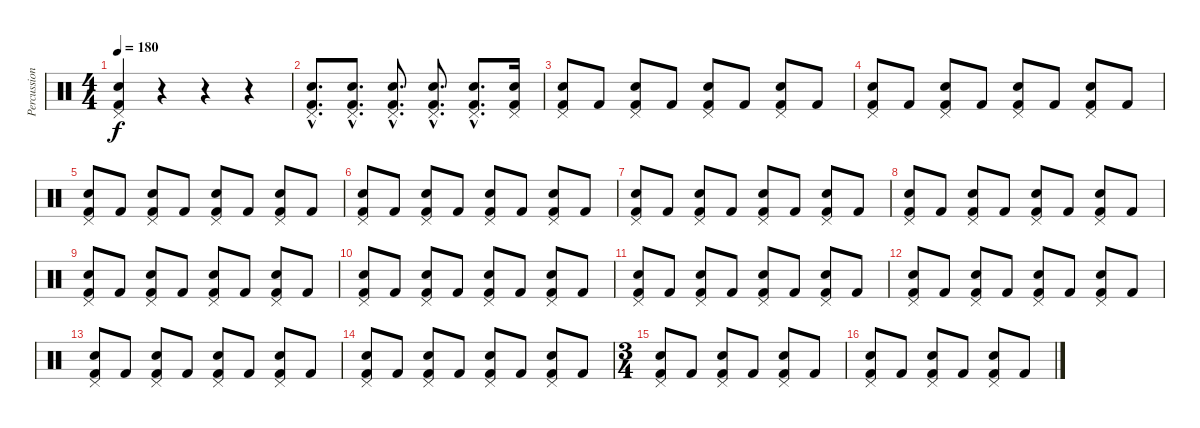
\track ("Percussion" "Percussion") {instrument percussion}
\staff {score}
\articulation defaults
\ts (4 4)
\tempo 180
\clef neutral
\ks c
("Snare (hit) 2" "Pedal Hi-Hat (hit)" "Kick (hit) 2").4{dy f} r.4 r.4 r.4 |
("Snare (hit) 2"{hac} "Pedal Hi-Hat (hit)"{hac} "Kick (hit) 2"{hac}).8{d} ("Snare (hit) 2"{hac} "Pedal Hi-Hat (hit)"{hac} "Kick (hit) 2"{hac}).8{d} ("Snare (hit) 2"{hac} "Pedal Hi-Hat (hit)"{hac} "Kick (hit) 2"{hac}).8{d} ("Snare (hit) 2"{hac} "Pedal Hi-Hat (hit)"{hac} "Kick (hit) 2"{hac}).8{d} ("Snare (hit) 2"{hac} "Pedal Hi-Hat (hit)"{hac} "Kick (hit) 2"{hac}).8{d} ("Snare (hit) 2" "Pedal Hi-Hat (hit)" "Kick (hit) 2").16 |
("Snare (hit) 2" "Pedal Hi-Hat (hit)" "Kick (hit) 2").8 "Kick (hit) 2".8 ("Snare (hit) 2" "Pedal Hi-Hat (hit)" "Kick (hit) 2").8 "Kick (hit) 2".8 ("Snare (hit) 2" "Pedal Hi-Hat (hit)" "Kick (hit) 2").8 "Kick (hit) 2".8 ("Snare (hit) 2" "Pedal Hi-Hat (hit)" "Kick (hit) 2").8 "Kick (hit) 2".8 |
("Snare (hit) 2" "Pedal Hi-Hat (hit)" "Kick (hit) 2").8 "Kick (hit) 2".8 ("Snare (hit) 2" "Pedal Hi-Hat (hit)" "Kick (hit) 2").8 "Kick (hit) 2".8 ("Snare (hit) 2" "Pedal Hi-Hat (hit)" "Kick (hit) 2").8 "Kick (hit) 2".8 ("Snare (hit) 2" "Pedal Hi-Hat (hit)" "Kick (hit) 2").8 "Kick (hit) 2".8 |
("Snare (hit) 2" "Pedal Hi-Hat (hit)" "Kick (hit) 2").8 "Kick (hit) 2".8 ("Snare (hit) 2" "Pedal Hi-Hat (hit)" "Kick (hit) 2").8 "Kick (hit) 2".8 ("Snare (hit) 2" "Pedal Hi-Hat (hit)" "Kick (hit) 2").8 "Kick (hit) 2".8 ("Snare (hit) 2" "Pedal Hi-Hat (hit)" "Kick (hit) 2").8 "Kick (hit) 2".8 |
("Snare (hit) 2" "Pedal Hi-Hat (hit)" "Kick (hit) 2").8 "Kick (hit) 2".8 ("Snare (hit) 2" "Pedal Hi-Hat (hit)" "Kick (hit) 2").8 "Kick (hit) 2".8 ("Snare (hit) 2" "Pedal Hi-Hat (hit)" "Kick (hit) 2").8 "Kick (hit) 2".8 ("Snare (hit) 2" "Pedal Hi-Hat (hit)" "Kick (hit) 2").8 "Kick (hit) 2".8 |
("Snare (hit) 2" "Pedal Hi-Hat (hit)" "Kick (hit) 2").8 "Kick (hit) 2".8 ("Snare (hit) 2" "Pedal Hi-Hat (hit)" "Kick (hit) 2").8 "Kick (hit) 2".8 ("Snare (hit) 2" "Pedal Hi-Hat (hit)" "Kick (hit) 2").8 "Kick (hit) 2".8 ("Snare (hit) 2" "Pedal Hi-Hat (hit)" "Kick (hit) 2").8 "Kick (hit) 2".8 |
("Snare (hit) 2" "Pedal Hi-Hat (hit)" "Kick (hit) 2").8 "Kick (hit) 2".8 ("Snare (hit) 2" "Pedal Hi-Hat (hit)" "Kick (hit) 2").8 "Kick (hit) 2".8 ("Snare (hit) 2" "Pedal Hi-Hat (hit)" "Kick (hit) 2").8 "Kick (hit) 2".8 ("Snare (hit) 2" "Pedal Hi-Hat (hit)" "Kick (hit) 2").8 "Kick (hit) 2".8 |
("Snare (hit) 2" "Pedal Hi-Hat (hit)" "Kick (hit) 2").8 "Kick (hit) 2".8 ("Snare (hit) 2" "Pedal Hi-Hat (hit)" "Kick (hit) 2").8 "Kick (hit) 2".8 ("Snare (hit) 2" "Pedal Hi-Hat (hit)" "Kick (hit) 2").8 "Kick (hit) 2".8 ("Snare (hit) 2" "Pedal Hi-Hat (hit)" "Kick (hit) 2").8 "Kick (hit) 2".8 |
("Snare (hit) 2" "Pedal Hi-Hat (hit)" "Kick (hit) 2").8 "Kick (hit) 2".8 ("Snare (hit) 2" "Pedal Hi-Hat (hit)" "Kick (hit) 2").8 "Kick (hit) 2".8 ("Snare (hit) 2" "Pedal Hi-Hat (hit)" "Kick (hit) 2").8 "Kick (hit) 2".8 ("Snare (hit) 2" "Pedal Hi-Hat (hit)" "Kick (hit) 2").8 "Kick (hit) 2".8 |
("Snare (hit) 2" "Pedal Hi-Hat (hit)" "Kick (hit) 2").8 "Kick (hit) 2".8 ("Snare (hit) 2" "Pedal Hi-Hat (hit)" "Kick (hit) 2").8 "Kick (hit) 2".8 ("Snare (hit) 2" "Pedal Hi-Hat (hit)" "Kick (hit) 2").8 "Kick (hit) 2".8 ("Snare (hit) 2" "Pedal Hi-Hat (hit)" "Kick (hit) 2").8 "Kick (hit) 2".8 |
("Snare (hit) 2" "Pedal Hi-Hat (hit)" "Kick (hit) 2").8 "Kick (hit) 2".8 ("Snare (hit) 2" "Pedal Hi-Hat (hit)" "Kick (hit) 2").8 "Kick (hit) 2".8 ("Snare (hit) 2" "Pedal Hi-Hat (hit)" "Kick (hit) 2").8 "Kick (hit) 2".8 ("Snare (hit) 2" "Pedal Hi-Hat (hit)" "Kick (hit) 2").8 "Kick (hit) 2".8 |
("Snare (hit) 2" "Pedal Hi-Hat (hit)" "Kick (hit) 2").8 "Kick (hit) 2".8 ("Snare (hit) 2" "Pedal Hi-Hat (hit)" "Kick (hit) 2").8 "Kick (hit) 2".8 ("Snare (hit) 2" "Pedal Hi-Hat (hit)" "Kick (hit) 2").8 "Kick (hit) 2".8 ("Snare (hit) 2" "Pedal Hi-Hat (hit)" "Kick (hit) 2").8 "Kick (hit) 2".8 |
("Snare (hit) 2" "Pedal Hi-Hat (hit)" "Kick (hit) 2").8 "Kick (hit) 2".8 ("Snare (hit) 2" "Pedal Hi-Hat (hit)" "Kick (hit) 2").8 "Kick (hit) 2".8 ("Snare (hit) 2" "Pedal Hi-Hat (hit)" "Kick (hit) 2").8 "Kick (hit) 2".8 ("Snare (hit) 2" "Pedal Hi-Hat (hit)" "Kick (hit) 2").8 "Kick (hit) 2".8 |
\ts (3 4)
("Snare (hit) 2" "Pedal Hi-Hat (hit)" "Kick (hit) 2").8 "Kick (hit) 2".8 ("Snare (hit) 2" "Pedal Hi-Hat (hit)" "Kick (hit) 2").8 "Kick (hit) 2".8 ("Snare (hit) 2" "Pedal Hi-Hat (hit)" "Kick (hit) 2").8 "Kick (hit) 2".8 |
("Snare (hit) 2" "Pedal Hi-Hat (hit)" "Kick (hit) 2").8 "Kick (hit) 2".8 ("Snare (hit) 2" "Pedal Hi-Hat (hit)" "Kick (hit) 2").8 "Kick (hit) 2".8 ("Snare (hit) 2" "Pedal Hi-Hat (hit)" "Kick (hit) 2").8 "Kick (hit) 2".8
